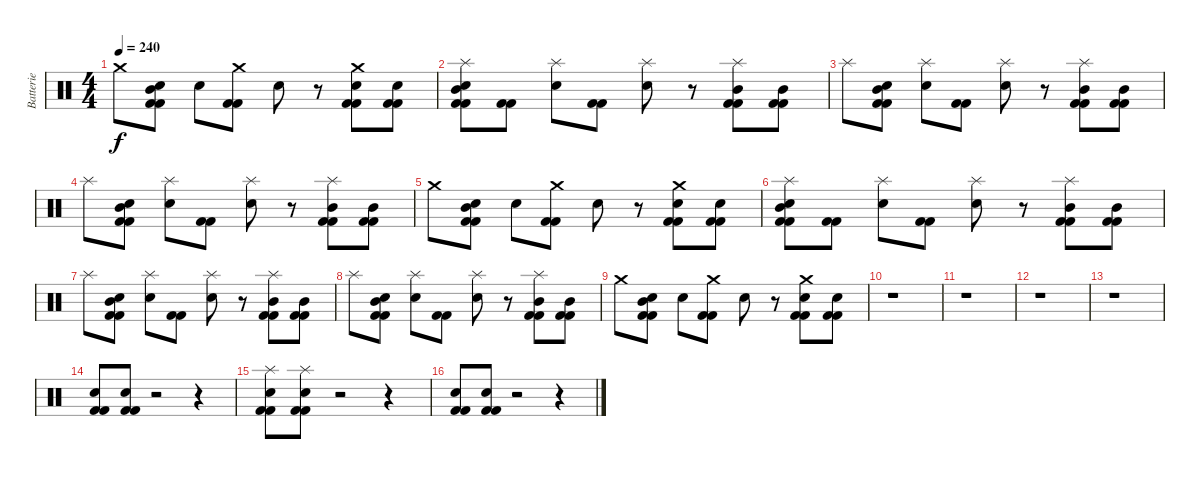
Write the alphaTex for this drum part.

\track ("Batterie" "Batterie") {instrument percussion}
\staff {score}
\articulation defaults
\ts (4 4)
\tempo 240
\clef neutral
\ks c "Crash medium (hit)".8{dy f}
("Snare (hit) 2" "Mid Tom (hit)" "Kick (hit) 2" "Kick (hit) 2").8 "Snare (hit) 2".8 ("Crash medium (hit)" "Kick (hit) 2" "Kick (hit) 2").8 "Snare (hit) 2".8 r.8 ("Crash medium (hit)" "Snare (hit) 2" "Kick (hit) 2" "Kick (hit) 2").8 ("Snare (hit) 2" "Kick (hit) 2" "Kick (hit) 2").8 |
("Splash (hit)" "Snare (hit) 2" "Mid Tom (hit)" "Kick (hit) 2" "Kick (hit) 2").8 ("Kick (hit) 2" "Kick (hit) 2").8 ("Splash (hit)" "Snare (hit) 2").8 ("Kick (hit) 2" "Kick (hit) 2").8 ("Splash (hit)" "Snare (hit) 2").8 r.8 ("Splash (hit)" "Mid Tom (hit)" "Kick (hit) 2" "Kick (hit) 2").8 ("Mid Tom (hit)" "Kick (hit) 2" "Kick (hit) 2").8 |
"Splash (hit)".8 ("Snare (hit) 2" "Mid Tom (hit)" "Kick (hit) 2" "Kick (hit) 2").8 ("Splash (hit)" "Snare (hit) 2").8 ("Kick (hit) 2" "Kick (hit) 2").8 ("Splash (hit)" "Snare (hit) 2").8 r.8 ("Splash (hit)" "Mid Tom (hit)" "Kick (hit) 2" "Kick (hit) 2").8 ("Mid Tom (hit)" "Kick (hit) 2" "Kick (hit) 2").8 |
"Splash (hit)".8 ("Snare (hit) 2" "Mid Tom (hit)" "Kick (hit) 2" "Kick (hit) 2").8 ("Splash (hit)" "Snare (hit) 2").8 ("Kick (hit) 2" "Kick (hit) 2").8 ("Splash (hit)" "Snare (hit) 2").8 r.8 ("Splash (hit)" "Mid Tom (hit)" "Kick (hit) 2" "Kick (hit) 2").8 ("Mid Tom (hit)" "Kick (hit) 2" "Kick (hit) 2").8 |
"Crash medium (hit)".8 ("Snare (hit) 2" "Mid Tom (hit)" "Kick (hit) 2" "Kick (hit) 2").8 "Snare (hit) 2".8 ("Crash medium (hit)" "Kick (hit) 2" "Kick (hit) 2").8 "Snare (hit) 2".8 r.8 ("Crash medium (hit)" "Snare (hit) 2" "Kick (hit) 2" "Kick (hit) 2").8 ("Snare (hit) 2" "Kick (hit) 2" "Kick (hit) 2").8 |
("Splash (hit)" "Snare (hit) 2" "Mid Tom (hit)" "Kick (hit) 2" "Kick (hit) 2").8 ("Kick (hit) 2" "Kick (hit) 2").8 ("Splash (hit)" "Snare (hit) 2").8 ("Kick (hit) 2" "Kick (hit) 2").8 ("Splash (hit)" "Snare (hit) 2").8 r.8 ("Splash (hit)" "Mid Tom (hit)" "Kick (hit) 2" "Kick (hit) 2").8 ("Mid Tom (hit)" "Kick (hit) 2" "Kick (hit) 2").8 |
"Splash (hit)".8 ("Snare (hit) 2" "Mid Tom (hit)" "Kick (hit) 2" "Kick (hit) 2").8 ("Splash (hit)" "Snare (hit) 2").8 ("Kick (hit) 2" "Kick (hit) 2").8 ("Splash (hit)" "Snare (hit) 2").8 r.8 ("Splash (hit)" "Mid Tom (hit)" "Kick (hit) 2" "Kick (hit) 2").8 ("Mid Tom (hit)" "Kick (hit) 2" "Kick (hit) 2").8 |
"Splash (hit)".8 ("Snare (hit) 2" "Mid Tom (hit)" "Kick (hit) 2" "Kick (hit) 2").8 ("Splash (hit)" "Snare (hit) 2").8 ("Kick (hit) 2" "Kick (hit) 2").8 ("Splash (hit)" "Snare (hit) 2").8 r.8 ("Splash (hit)" "Mid Tom (hit)" "Kick (hit) 2" "Kick (hit) 2").8 ("Mid Tom (hit)" "Kick (hit) 2" "Kick (hit) 2").8 |
"Crash medium (hit)".8 ("Snare (hit) 2" "Mid Tom (hit)" "Kick (hit) 2" "Kick (hit) 2").8 "Snare (hit) 2".8 ("Crash medium (hit)" "Kick (hit) 2" "Kick (hit) 2").8 "Snare (hit) 2".8 r.8 ("Crash medium (hit)" "Snare (hit) 2" "Kick (hit) 2" "Kick (hit) 2").8 ("Snare (hit) 2" "Kick (hit) 2" "Kick (hit) 2").8 |
r.1 |
r.1 |
r.1 |
r.1 |
("Snare (hit) 2" "Kick (hit) 2" "Kick (hit) 2").8 ("Snare (hit) 2" "Kick (hit) 2" "Kick (hit) 2").8 r.2 r.4 |
("Splash (hit)" "Snare (hit) 2" "Kick (hit) 2" "Kick (hit) 2").8 ("Splash (hit)" "Snare (hit) 2" "Kick (hit) 2" "Kick (hit) 2").8 r.2 r.4 |
("Snare (hit) 2" "Kick (hit) 2" "Kick (hit) 2").8 ("Snare (hit) 2" "Kick (hit) 2" "Kick (hit) 2").8 r.2 r.4
